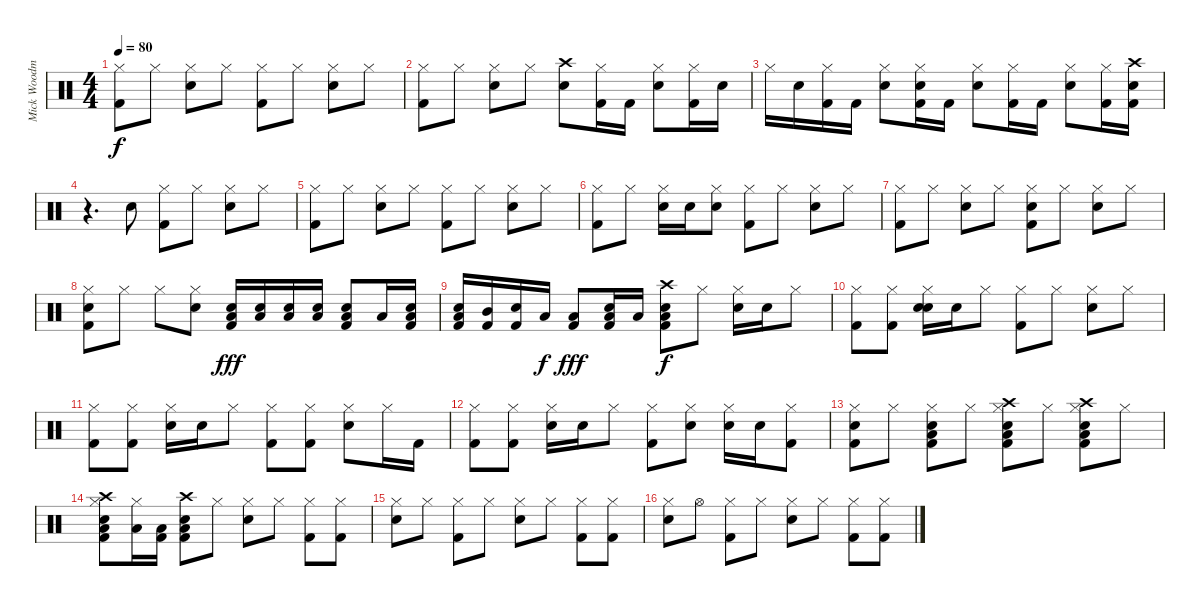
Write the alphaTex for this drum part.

\track ("Mick Woodmansey" "Mick Woodm") {instrument percussion}
\staff {score}
\articulation defaults
\ts (4 4)
\tempo 80
\clef neutral
\ks c
("Hi-Hat (closed)" "Kick (hit) 2").8{dy f} "Hi-Hat (closed)".8 ("Hi-Hat (closed)" "Snare (hit) 2").8 "Hi-Hat (closed)".8 ("Hi-Hat (closed)" "Kick (hit) 2").8 "Hi-Hat (closed)".8 ("Hi-Hat (closed)" "Snare (hit) 2").8 "Hi-Hat (closed)".8 |
("Hi-Hat (closed)" "Kick (hit) 2").8 "Hi-Hat (closed)".8 ("Hi-Hat (closed)" "Snare (hit) 2").8 "Hi-Hat (closed)".8 ("Snare (hit) 2" "Crash high (hit)").8 ("Kick (hit) 2" "Hi-Hat (closed)").16 "Kick (hit) 2".16 ("Hi-Hat (closed)" "Snare (hit) 2").8 ("Kick (hit) 2" "Hi-Hat (closed)").16 "Snare (hit) 2".16 |
"Hi-Hat (closed)".16 "Snare (hit) 2".16 ("Kick (hit) 2" "Hi-Hat (closed)").16 "Kick (hit) 2".16 ("Hi-Hat (closed)" "Snare (hit) 2").8 ("Snare (hit) 2" "Kick (hit) 2" "Hi-Hat (closed)").16 "Kick (hit) 2".16 ("Hi-Hat (closed)" "Snare (hit) 2").8 ("Kick (hit) 2" "Hi-Hat (closed)").16 "Kick (hit) 2".16 ("Hi-Hat (closed)" "Snare (hit) 2").8 ("Kick (hit) 2" "Hi-Hat (closed)").16 ("Crash high (hit)" "Snare (hit) 2" "Kick (hit) 2").16 |
r.4{d} "Snare (hit) 2".8 ("Hi-Hat (closed)" "Kick (hit) 2").8 "Hi-Hat (closed)".8 ("Hi-Hat (closed)" "Snare (hit) 2").8 "Hi-Hat (closed)".8 |
("Hi-Hat (closed)" "Kick (hit) 2").8 "Hi-Hat (closed)".8 ("Hi-Hat (closed)" "Snare (hit) 2").8 "Hi-Hat (closed)".8 ("Hi-Hat (closed)" "Kick (hit) 2").8 "Hi-Hat (closed)".8 ("Hi-Hat (closed)" "Snare (hit) 2").8 "Hi-Hat (closed)".8 |
("Hi-Hat (closed)" "Kick (hit) 2").8 "Hi-Hat (closed)".8 ("Hi-Hat (closed)" "Snare (hit) 2").16 "Snare (hit) 2".16 ("Snare (hit) 2" "Hi-Hat (closed)").8 ("Hi-Hat (closed)" "Kick (hit) 2").8 "Hi-Hat (closed)".8 ("Hi-Hat (closed)" "Snare (hit) 2").8 "Hi-Hat (closed)".8 |
("Hi-Hat (closed)" "Kick (hit) 2").8 "Hi-Hat (closed)".8 ("Hi-Hat (closed)" "Snare (hit) 2").8 "Hi-Hat (closed)".8 ("Snare (hit) 2" "Hi-Hat (closed)" "Kick (hit) 2").8 "Hi-Hat (closed)".8 ("Hi-Hat (closed)" "Snare (hit) 2").8 "Hi-Hat (closed)".8 |
("Snare (hit) 2" "Hi-Hat (closed)" "Kick (hit) 2").8 "Hi-Hat (closed)".8 "Hi-Hat (closed)".8 ("Snare (hit) 2" "Hi-Hat (closed)").8 ("Low Floor Tom (hit)" "Snare (hit) 2" "Kick (hit) 2").16{dy fff} ("Low Floor Tom (hit)" "Snare (hit) 2").16 ("Low Floor Tom (hit)" "Snare (hit) 2").16 ("Low Floor Tom (hit)" "Snare (hit) 2").16 ("Low Floor Tom (hit)" "Snare (hit) 2" "Kick (hit) 2").8 "Low Tom (hit)".16 ("Low Floor Tom (hit)" "Snare (hit) 2" "Kick (hit) 2").16 |
("Low Floor Tom (hit)" "Kick (hit) 2" "Snare (hit) 2").16 ("Kick (hit) 2" "Mid Tom (hit)").16 ("Kick (hit) 2" "Snare (hit) 2").16 "Low Floor Tom (hit)".16{dy f} ("Kick (hit) 2" "Low Floor Tom (hit)").8{dy fff} ("Low Floor Tom (hit)" "Kick (hit) 2" "Snare (hit) 2").16 "Low Tom (hit)".16 ("Snare (hit) 2" "Low Floor Tom (hit)" "Kick (hit) 2" "Crash high (hit)").8{dy f} "Hi-Hat (closed)".8 ("Hi-Hat (closed)" "Snare (hit) 2").16 "Snare (hit) 2".16 "Hi-Hat (closed)".8 |
("Hi-Hat (closed)" "Kick (hit) 2").8 ("Hi-Hat (closed)" "Kick (hit) 2").8 ("Hi-Hat (closed)" "Snare (hit) 2" "Snare (hit) 2").16 "Snare (hit) 2".16 "Hi-Hat (closed)".8 ("Kick (hit) 2" "Hi-Hat (closed)").8 "Hi-Hat (closed)".8 ("Hi-Hat (closed)" "Snare (hit) 2").8 "Hi-Hat (closed)".8 |
("Hi-Hat (closed)" "Kick (hit) 2").8 ("Hi-Hat (closed)" "Kick (hit) 2").8 ("Hi-Hat (closed)" "Snare (hit) 2").16 "Snare (hit) 2".16 "Hi-Hat (closed)".8 ("Kick (hit) 2" "Hi-Hat (closed)").8 ("Kick (hit) 2" "Hi-Hat (closed)").8 ("Hi-Hat (closed)" "Snare (hit) 2").8 "Hi-Hat (closed)".16 "Kick (hit) 2".16 |
("Hi-Hat (closed)" "Kick (hit) 2").8 ("Hi-Hat (closed)" "Kick (hit) 2").8 ("Hi-Hat (closed)" "Snare (hit) 2").16 "Snare (hit) 2".16 "Hi-Hat (closed)".8 ("Kick (hit) 2" "Hi-Hat (closed)").8 ("Hi-Hat (closed)" "Snare (hit) 2").8 ("Hi-Hat (closed)" "Snare (hit) 2").16 "Snare (hit) 2".16 ("Kick (hit) 2" "Hi-Hat (closed)").8 |
("Snare (hit) 2" "Hi-Hat (closed)" "Kick (hit) 2").8 "Hi-Hat (closed)".8 ("Kick (hit) 2" "Hi-Hat (closed)" "Snare (hit) 2" "Low Floor Tom (hit)").8 "Hi-Hat (closed)".8 ("Crash high (hit)" "Snare (hit) 2" "Kick (hit) 2" "Hi-Hat (closed)" "Low Floor Tom (hit)").8 "Hi-Hat (closed)".8 ("Crash high (hit)" "Kick (hit) 2" "Hi-Hat (closed)" "Snare (hit) 2" "Low Floor Tom (hit)").8 "Hi-Hat (closed)".8 |
("Crash high (hit)" "Snare (hit) 2" "Hi-Hat (closed)" "Kick (hit) 2" "Low Floor Tom (hit)").8 ("Low Floor Tom (hit)" "Hi-Hat (closed)").16 ("Low Floor Tom (hit)" "Kick (hit) 2").16 ("Low Floor Tom (hit)" "Crash high (hit)" "Kick (hit) 2" "Snare (hit) 2").8 "Hi-Hat (closed)".8 ("Hi-Hat (closed)" "Snare (hit) 2").8 "Hi-Hat (closed)".8 ("Hi-Hat (closed)" "Kick (hit) 2").8 ("Kick (hit) 2" "Hi-Hat (closed)").8 |
("Snare (hit) 2" "Hi-Hat (closed)").8 "Hi-Hat (closed)".8 ("Hi-Hat (closed)" "Kick (hit) 2").8 "Hi-Hat (closed)".8 ("Snare (hit) 2" "Hi-Hat (closed)").8 "Hi-Hat (closed)".8 ("Hi-Hat (closed)" "Kick (hit) 2").8 ("Kick (hit) 2" "Hi-Hat (closed)").8 |
("Hi-Hat (closed)" "Snare (hit) 2").8 "Hi-Hat (open)".8 ("Kick (hit) 2" "Hi-Hat (closed)").8 "Hi-Hat (closed)".8 ("Hi-Hat (closed)" "Snare (hit) 2").8 "Hi-Hat (closed)".8 ("Hi-Hat (closed)" "Kick (hit) 2").8 ("Hi-Hat (closed)" "Kick (hit) 2").8
